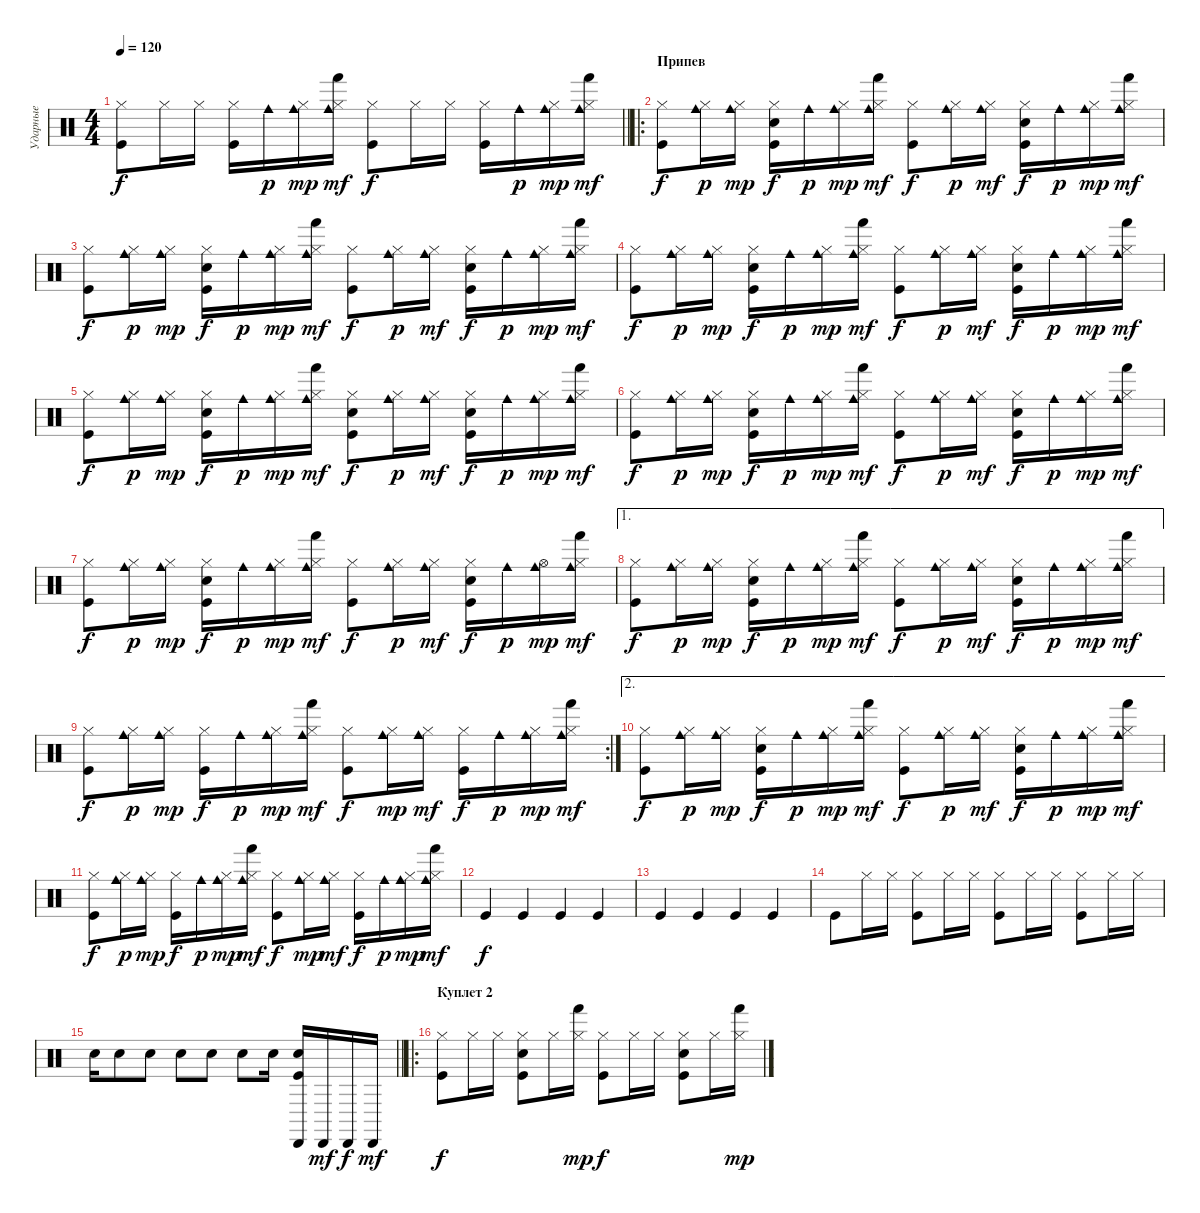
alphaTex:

\track ("Ударные" "Ударные") {instrument percussion}
\staff {score}
\articulation defaults
\ts (4 4)
\tempo 120
\clef neutral
\barLineRight lightlight
\ks c
("Hi-Hat (closed)" "Kick (hit)").8{dy f} "Hi-Hat (closed)".16 "Hi-Hat (closed)".16 ("Hi-Hat (closed)" "Kick (hit)").16 "Cowbell medium (hit)".16{dy p} ("Hi-Hat (closed)" "Cowbell medium (hit)").16{dy mp} ("Hi-Hat (closed)" "Hand (hit)" "Cowbell medium (hit)").16{dy mf} ("Hi-Hat (closed)" "Kick (hit)").8{dy f} "Hi-Hat (closed)".16 "Hi-Hat (closed)".16 ("Hi-Hat (closed)" "Kick (hit)").16 "Cowbell medium (hit)".16{dy p} ("Hi-Hat (closed)" "Cowbell medium (hit)").16{dy mp} ("Hi-Hat (closed)" "Hand (hit)" "Cowbell medium (hit)").16{dy mf} |
\ro
\section ("" "Припев")
("Hi-Hat (closed)" "Kick (hit)").8{dy f} ("Hi-Hat (closed)" "Cowbell medium (hit)").16{dy p} ("Hi-Hat (closed)" "Cowbell medium (hit)").16{dy mp} ("Hi-Hat (closed)" "Snare (hit) 2" "Kick (hit)").16{dy f} "Cowbell medium (hit)".16{dy p} ("Hi-Hat (closed)" "Cowbell medium (hit)").16{dy mp} ("Hi-Hat (closed)" "Hand (hit)" "Cowbell medium (hit)").16{dy mf} ("Hi-Hat (closed)" "Kick (hit)").8{dy f} ("Hi-Hat (closed)" "Cowbell medium (hit)").16{dy p} ("Hi-Hat (closed)" "Cowbell medium (hit)").16{dy mf} ("Hi-Hat (closed)" "Snare (hit) 2" "Kick (hit)").16{dy f} "Cowbell medium (hit)".16{dy p} ("Hi-Hat (closed)" "Cowbell medium (hit)").16{dy mp} ("Hi-Hat (closed)" "Hand (hit)" "Cowbell medium (hit)").16{dy mf} |
("Hi-Hat (closed)" "Kick (hit)").8{dy f} ("Hi-Hat (closed)" "Cowbell medium (hit)").16{dy p} ("Hi-Hat (closed)" "Cowbell medium (hit)").16{dy mp} ("Hi-Hat (closed)" "Snare (hit) 2" "Kick (hit)").16{dy f} "Cowbell medium (hit)".16{dy p} ("Hi-Hat (closed)" "Cowbell medium (hit)").16{dy mp} ("Hi-Hat (closed)" "Hand (hit)" "Cowbell medium (hit)").16{dy mf} ("Hi-Hat (closed)" "Kick (hit)").8{dy f} ("Hi-Hat (closed)" "Cowbell medium (hit)").16{dy p} ("Hi-Hat (closed)" "Cowbell medium (hit)").16{dy mf} ("Hi-Hat (closed)" "Snare (hit) 2" "Kick (hit)").16{dy f} "Cowbell medium (hit)".16{dy p} ("Hi-Hat (closed)" "Cowbell medium (hit)").16{dy mp} ("Hi-Hat (closed)" "Hand (hit)" "Cowbell medium (hit)").16{dy mf} |
("Hi-Hat (closed)" "Kick (hit)").8{dy f} ("Hi-Hat (closed)" "Cowbell medium (hit)").16{dy p} ("Hi-Hat (closed)" "Cowbell medium (hit)").16{dy mp} ("Hi-Hat (closed)" "Snare (hit) 2" "Kick (hit)").16{dy f} "Cowbell medium (hit)".16{dy p} ("Hi-Hat (closed)" "Cowbell medium (hit)").16{dy mp} ("Hi-Hat (closed)" "Hand (hit)" "Cowbell medium (hit)").16{dy mf} ("Hi-Hat (closed)" "Kick (hit)").8{dy f} ("Hi-Hat (closed)" "Cowbell medium (hit)").16{dy p} ("Hi-Hat (closed)" "Cowbell medium (hit)").16{dy mf} ("Hi-Hat (closed)" "Snare (hit) 2" "Kick (hit)").16{dy f} "Cowbell medium (hit)".16{dy p} ("Hi-Hat (closed)" "Cowbell medium (hit)").16{dy mp} ("Hi-Hat (closed)" "Hand (hit)" "Cowbell medium (hit)").16{dy mf} |
("Hi-Hat (closed)" "Kick (hit)").8{dy f} ("Hi-Hat (closed)" "Cowbell medium (hit)").16{dy p} ("Hi-Hat (closed)" "Cowbell medium (hit)").16{dy mp} ("Hi-Hat (closed)" "Snare (hit) 2" "Kick (hit)").16{dy f} "Cowbell medium (hit)".16{dy p} ("Hi-Hat (closed)" "Cowbell medium (hit)").16{dy mp} ("Hi-Hat (closed)" "Hand (hit)" "Cowbell medium (hit)").16{dy mf} ("Hi-Hat (closed)" "Snare (hit) 2" "Kick (hit)").8{dy f} ("Hi-Hat (closed)" "Cowbell medium (hit)").16{dy p} ("Hi-Hat (closed)" "Cowbell medium (hit)").16{dy mf} ("Hi-Hat (closed)" "Snare (hit) 2" "Kick (hit)").16{dy f} "Cowbell medium (hit)".16{dy p} ("Hi-Hat (closed)" "Cowbell medium (hit)").16{dy mp} ("Hi-Hat (closed)" "Hand (hit)" "Cowbell medium (hit)").16{dy mf} |
("Hi-Hat (closed)" "Kick (hit)").8{dy f} ("Hi-Hat (closed)" "Cowbell medium (hit)").16{dy p} ("Hi-Hat (closed)" "Cowbell medium (hit)").16{dy mp} ("Hi-Hat (closed)" "Snare (hit) 2" "Kick (hit)").16{dy f} "Cowbell medium (hit)".16{dy p} ("Hi-Hat (closed)" "Cowbell medium (hit)").16{dy mp} ("Hi-Hat (closed)" "Hand (hit)" "Cowbell medium (hit)").16{dy mf} ("Hi-Hat (closed)" "Kick (hit)").8{dy f} ("Hi-Hat (closed)" "Cowbell medium (hit)").16{dy p} ("Hi-Hat (closed)" "Cowbell medium (hit)").16{dy mf} ("Hi-Hat (closed)" "Snare (hit) 2" "Kick (hit)").16{dy f} "Cowbell medium (hit)".16{dy p} ("Hi-Hat (closed)" "Cowbell medium (hit)").16{dy mp} ("Hi-Hat (closed)" "Hand (hit)" "Cowbell medium (hit)").16{dy mf} |
("Hi-Hat (closed)" "Kick (hit)").8{dy f} ("Hi-Hat (closed)" "Cowbell medium (hit)").16{dy p} ("Hi-Hat (closed)" "Cowbell medium (hit)").16{dy mp} ("Hi-Hat (closed)" "Snare (hit) 2" "Kick (hit)").16{dy f} "Cowbell medium (hit)".16{dy p} ("Hi-Hat (closed)" "Cowbell medium (hit)").16{dy mp} ("Hi-Hat (closed)" "Hand (hit)" "Cowbell medium (hit)").16{dy mf} ("Hi-Hat (closed)" "Kick (hit)").8{dy f} ("Hi-Hat (closed)" "Cowbell medium (hit)").16{dy p} ("Hi-Hat (closed)" "Cowbell medium (hit)").16{dy mf} ("Hi-Hat (closed)" "Snare (hit) 2" "Kick (hit)").16{dy f} "Cowbell medium (hit)".16{dy p} ("Hi-Hat (open)" "Cowbell medium (hit)").16{dy mp} ("Hi-Hat (closed)" "Hand (hit)" "Cowbell medium (hit)").16{dy mf} |
\ae 1
("Hi-Hat (closed)" "Kick (hit)").8{dy f} ("Hi-Hat (closed)" "Cowbell medium (hit)").16{dy p} ("Hi-Hat (closed)" "Cowbell medium (hit)").16{dy mp} ("Hi-Hat (closed)" "Snare (hit) 2" "Kick (hit)").16{dy f} "Cowbell medium (hit)".16{dy p} ("Hi-Hat (closed)" "Cowbell medium (hit)").16{dy mp} ("Hi-Hat (closed)" "Hand (hit)" "Cowbell medium (hit)").16{dy mf} ("Hi-Hat (closed)" "Kick (hit)").8{dy f} ("Hi-Hat (closed)" "Cowbell medium (hit)").16{dy p} ("Hi-Hat (closed)" "Cowbell medium (hit)").16{dy mf} ("Hi-Hat (closed)" "Snare (hit) 2" "Kick (hit)").16{dy f} "Cowbell medium (hit)".16{dy p} ("Hi-Hat (closed)" "Cowbell medium (hit)").16{dy mp} ("Hi-Hat (closed)" "Hand (hit)" "Cowbell medium (hit)").16{dy mf} |
\rc 2
("Hi-Hat (closed)" "Kick (hit)").8{dy f} ("Hi-Hat (closed)" "Cowbell medium (hit)").16{dy p} ("Hi-Hat (closed)" "Cowbell medium (hit)").16{dy mp} ("Hi-Hat (closed)" "Kick (hit)").16{dy f} "Cowbell medium (hit)".16{dy p} ("Hi-Hat (closed)" "Cowbell medium (hit)").16{dy mp} ("Hi-Hat (closed)" "Hand (hit)" "Cowbell medium (hit)").16{dy mf} ("Hi-Hat (closed)" "Kick (hit)").8{dy f} ("Hi-Hat (closed)" "Cowbell medium (hit)").16{dy mp} ("Hi-Hat (closed)" "Cowbell medium (hit)").16{dy mf} ("Hi-Hat (closed)" "Kick (hit)").16{dy f} "Cowbell medium (hit)".16{dy p} ("Hi-Hat (closed)" "Cowbell medium (hit)").16{dy mp} ("Hi-Hat (closed)" "Hand (hit)" "Cowbell medium (hit)").16{dy mf} |
\ae 2
("Hi-Hat (closed)" "Kick (hit)").8{dy f} ("Hi-Hat (closed)" "Cowbell medium (hit)").16{dy p} ("Hi-Hat (closed)" "Cowbell medium (hit)").16{dy mp} ("Hi-Hat (closed)" "Snare (hit) 2" "Kick (hit)").16{dy f} "Cowbell medium (hit)".16{dy p} ("Hi-Hat (closed)" "Cowbell medium (hit)").16{dy mp} ("Hi-Hat (closed)" "Hand (hit)" "Cowbell medium (hit)").16{dy mf} ("Hi-Hat (closed)" "Kick (hit)").8{dy f} ("Hi-Hat (closed)" "Cowbell medium (hit)").16{dy p} ("Hi-Hat (closed)" "Cowbell medium (hit)").16{dy mf} ("Hi-Hat (closed)" "Snare (hit) 2" "Kick (hit)").16{dy f} "Cowbell medium (hit)".16{dy p} ("Hi-Hat (closed)" "Cowbell medium (hit)").16{dy mp} ("Hi-Hat (closed)" "Hand (hit)" "Cowbell medium (hit)").16{dy mf} |
("Hi-Hat (closed)" "Kick (hit)").8{dy f} ("Hi-Hat (closed)" "Cowbell medium (hit)").16{dy p} ("Hi-Hat (closed)" "Cowbell medium (hit)").16{dy mp} ("Hi-Hat (closed)" "Kick (hit)").16{dy f} "Cowbell medium (hit)".16{dy p} ("Hi-Hat (closed)" "Cowbell medium (hit)").16{dy mp} ("Hi-Hat (closed)" "Hand (hit)" "Cowbell medium (hit)").16{dy mf} ("Hi-Hat (closed)" "Kick (hit)").8{dy f} ("Hi-Hat (closed)" "Cowbell medium (hit)").16{dy mp} ("Hi-Hat (closed)" "Cowbell medium (hit)").16{dy mf} ("Hi-Hat (closed)" "Kick (hit)").16{dy f} "Cowbell medium (hit)".16{dy p} ("Hi-Hat (closed)" "Cowbell medium (hit)").16{dy mp} ("Hi-Hat (closed)" "Hand (hit)" "Cowbell medium (hit)").16{dy mf} |
"Kick (hit)".4{dy f} "Kick (hit)".4 "Kick (hit)".4 "Kick (hit)".4 |
"Kick (hit)".4 "Kick (hit)".4 "Kick (hit)".4 "Kick (hit)".4 |
"Kick (hit)".8 "Hi-Hat (closed)".16 "Hi-Hat (closed)".16 ("Kick (hit)" "Hi-Hat (closed)").8 "Hi-Hat (closed)".16 "Hi-Hat (closed)".16 ("Kick (hit)" "Hi-Hat (closed)").8 "Hi-Hat (closed)".16 "Hi-Hat (closed)".16 ("Kick (hit)" "Hi-Hat (closed)").8 "Hi-Hat (closed)".16 "Hi-Hat (closed)".16 |
\barLineRight lightlight "Snare (hit) 2".16 "Snare (hit) 2".8 "Snare (hit) 2".8 "Snare (hit) 2".8 "Snare (hit) 2".8 "Snare (hit) 2".8 "Snare (hit) 2".16
("Cabasa (hit)" "Snare (hit) 2" "Kick (hit)").16 "Cabasa (hit)".16{dy mf} "Cabasa (hit)".16{dy f} "Cabasa (hit)".16{dy mf} |
\ro
\section ("" "Куплет 2")
("Hi-Hat (closed)" "Kick (hit)").8{dy f} "Hi-Hat (closed)".16 "Hi-Hat (closed)".16 ("Hi-Hat (closed)" "Snare (hit) 2" "Kick (hit)").8 "Hi-Hat (closed)".16 ("Hi-Hat (closed)" "Hand (hit)").16{dy mp} ("Hi-Hat (closed)" "Kick (hit)").8{dy f} "Hi-Hat (closed)".16 "Hi-Hat (closed)".16 ("Hi-Hat (closed)" "Snare (hit) 2" "Kick (hit)").8 "Hi-Hat (closed)".16 ("Hi-Hat (closed)" "Hand (hit)").16{dy mp}
